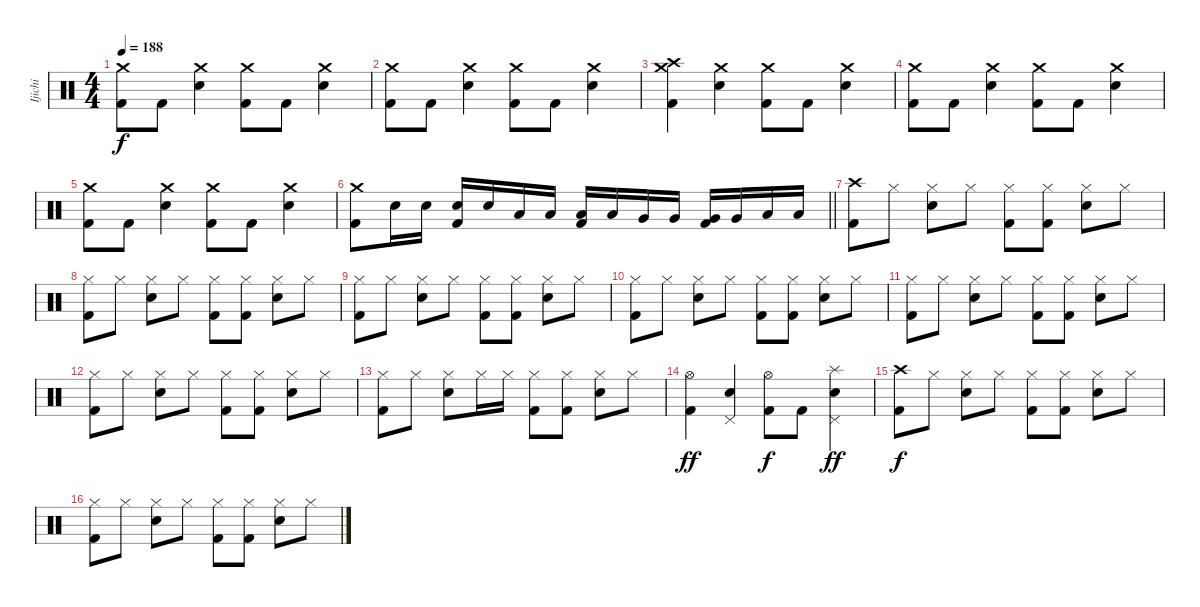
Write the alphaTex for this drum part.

\track ("Ijichi" "Ijichi") {instrument percussion}
\staff {score}
\articulation defaults
\ts (4 4)
\tempo 188
\clef neutral
\ks c
("Crash medium (hit)" "Kick (hit) 2").8{dy f} "Kick (hit) 2".8 ("Crash medium (hit)" "Electric Snare (hit)").4 ("Crash medium (hit)" "Kick (hit) 2").8 "Kick (hit) 2".8 ("Crash medium (hit)" "Electric Snare (hit)").4 |
("Crash medium (hit)" "Kick (hit) 2").8 "Kick (hit) 2".8 ("Crash medium (hit)" "Electric Snare (hit)").4 ("Crash medium (hit)" "Kick (hit) 2").8 "Kick (hit) 2".8 ("Crash medium (hit)" "Electric Snare (hit)").4 |
("Crash high (hit)" "Crash medium (hit)" "Kick (hit) 2").4 ("Crash medium (hit)" "Electric Snare (hit)").4 ("Crash medium (hit)" "Kick (hit) 2").8 "Kick (hit) 2".8 ("Crash medium (hit)" "Electric Snare (hit)").4 |
("Crash medium (hit)" "Kick (hit) 2").8 "Kick (hit) 2".8 ("Crash medium (hit)" "Electric Snare (hit)").4 ("Crash medium (hit)" "Kick (hit) 2").8 "Kick (hit) 2".8 ("Crash medium (hit)" "Electric Snare (hit)").4 |
("Crash medium (hit)" "Kick (hit) 2").8 "Kick (hit) 2".8 ("Crash medium (hit)" "Electric Snare (hit)").4 ("Crash medium (hit)" "Kick (hit) 2").8 "Kick (hit) 2".8 ("Crash medium (hit)" "Electric Snare (hit)").4 |
\barLineRight lightlight
("Crash medium (hit)" "Kick (hit) 2").8 "Electric Snare (hit)".16 "Electric Snare (hit)".16 ("Electric Snare (hit)" "Kick (hit) 2").16 "Electric Snare (hit)".16 "Low Tom (hit)".16 "Low Tom (hit)".16 ("Low Tom (hit)" "Kick (hit) 2").16 "Low Tom (hit)".16 "Very Low Tom (hit)".16 "Very Low Tom (hit)".16 ("Very Low Tom (hit)" "Kick (hit) 2").16 "Very Low Tom (hit)".16 "Low Floor Tom (hit)".16 "Low Floor Tom (hit)".16 |
("Crash high (hit)" "Kick (hit) 2").8 "Hi-Hat (closed)".8 ("Hi-Hat (closed)" "Electric Snare (hit)").8 "Hi-Hat (closed)".8 ("Hi-Hat (closed)" "Kick (hit) 2").8 ("Hi-Hat (closed)" "Kick (hit) 2").8 ("Hi-Hat (closed)" "Electric Snare (hit)").8 "Hi-Hat (closed)".8 |
("Hi-Hat (closed)" "Kick (hit) 2").8 "Hi-Hat (closed)".8 ("Hi-Hat (closed)" "Electric Snare (hit)").8 "Hi-Hat (closed)".8 ("Hi-Hat (closed)" "Kick (hit) 2").8 ("Hi-Hat (closed)" "Kick (hit) 2").8 ("Hi-Hat (closed)" "Electric Snare (hit)").8 "Hi-Hat (closed)".8 |
("Hi-Hat (closed)" "Kick (hit) 2").8 "Hi-Hat (closed)".8 ("Hi-Hat (closed)" "Electric Snare (hit)").8 "Hi-Hat (closed)".8 ("Hi-Hat (closed)" "Kick (hit) 2").8 ("Hi-Hat (closed)" "Kick (hit) 2").8 ("Hi-Hat (closed)" "Electric Snare (hit)").8 "Hi-Hat (closed)".8 |
("Hi-Hat (closed)" "Kick (hit) 2").8 "Hi-Hat (closed)".8 ("Hi-Hat (closed)" "Electric Snare (hit)").8 "Hi-Hat (closed)".8 ("Hi-Hat (closed)" "Kick (hit) 2").8 ("Hi-Hat (closed)" "Kick (hit) 2").8 ("Hi-Hat (closed)" "Electric Snare (hit)").8 "Hi-Hat (closed)".8 |
("Hi-Hat (closed)" "Kick (hit) 2").8 "Hi-Hat (closed)".8 ("Hi-Hat (closed)" "Electric Snare (hit)").8 "Hi-Hat (closed)".8 ("Hi-Hat (closed)" "Kick (hit) 2").8 ("Hi-Hat (closed)" "Kick (hit) 2").8 ("Hi-Hat (closed)" "Electric Snare (hit)").8 "Hi-Hat (closed)".8 |
("Hi-Hat (closed)" "Kick (hit) 2").8 "Hi-Hat (closed)".8 ("Hi-Hat (closed)" "Electric Snare (hit)").8 "Hi-Hat (closed)".8 ("Hi-Hat (closed)" "Kick (hit) 2").8 ("Hi-Hat (closed)" "Kick (hit) 2").8 ("Hi-Hat (closed)" "Electric Snare (hit)").8 "Hi-Hat (closed)".8 |
("Hi-Hat (closed)" "Kick (hit) 2").8 "Hi-Hat (closed)".8 ("Hi-Hat (closed)" "Electric Snare (hit)").8 "Hi-Hat (closed)".16 "Hi-Hat (closed)".16 ("Hi-Hat (closed)" "Kick (hit) 2").8 ("Hi-Hat (closed)" "Kick (hit) 2").8 ("Hi-Hat (closed)" "Electric Snare (hit)").8 "Hi-Hat (closed)".8 |
("Hi-Hat (open)" "Kick (hit) 2").4{dy ff} ("Pedal Hi-Hat (hit)" "Electric Snare (hit)").4 ("Hi-Hat (open)" "Kick (hit) 2").8{dy f} "Kick (hit) 2".8 ("Splash (hit)" "Pedal Hi-Hat (hit)" "Electric Snare (hit)").4{dy ff} |
("Crash high (hit)" "Kick (hit) 2").8{dy f} "Hi-Hat (closed)".8 ("Hi-Hat (closed)" "Electric Snare (hit)").8 "Hi-Hat (closed)".8 ("Hi-Hat (closed)" "Kick (hit) 2").8 ("Hi-Hat (closed)" "Kick (hit) 2").8 ("Hi-Hat (closed)" "Electric Snare (hit)").8 "Hi-Hat (closed)".8 |
("Hi-Hat (closed)" "Kick (hit) 2").8 "Hi-Hat (closed)".8 ("Hi-Hat (closed)" "Electric Snare (hit)").8 "Hi-Hat (closed)".8 ("Hi-Hat (closed)" "Kick (hit) 2").8 ("Hi-Hat (closed)" "Kick (hit) 2").8 ("Hi-Hat (closed)" "Electric Snare (hit)").8 "Hi-Hat (closed)".8
